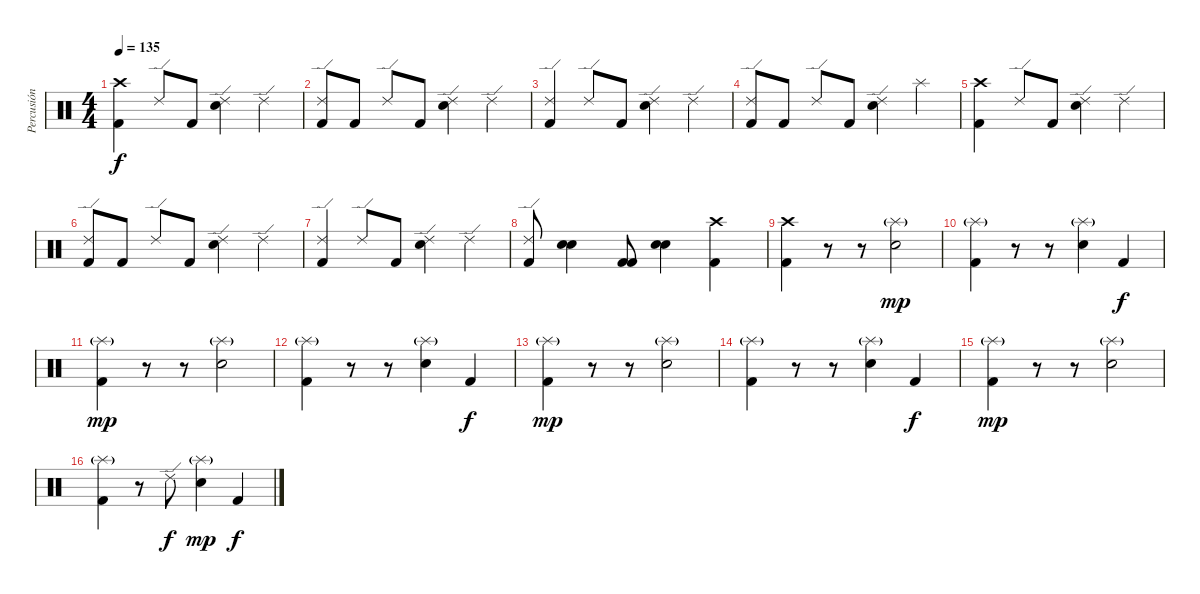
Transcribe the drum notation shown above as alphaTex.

\track ("Percusión" "Percusión") {instrument percussion}
\staff {score}
\articulation defaults
\ts (4 4)
\tempo 135
\clef neutral
\ks c
("Kick (hit) 2" "Crash high (hit)").4{dy f} "Ride (edge) 2".8 "Kick (hit) 2".8 ("Snare (hit) 2" "Ride (edge) 2").4 "Ride (edge) 2".4 |
("Kick (hit) 2" "Ride (edge) 2").8 "Kick (hit) 2".8 "Ride (edge) 2".8 "Kick (hit) 2".8 ("Snare (hit) 2" "Ride (edge) 2").4 "Ride (edge) 2".4 |
("Kick (hit) 2" "Ride (edge) 2").4 "Ride (edge) 2".8 "Kick (hit) 2".8 ("Snare (hit) 2" "Ride (edge) 2").4 "Ride (edge) 2".4 |
("Kick (hit) 2" "Ride (edge) 2").8 "Kick (hit) 2".8 "Ride (edge) 2".8 "Kick (hit) 2".8 ("Snare (hit) 2" "Ride (edge) 2").4 "Splash (hit)".4 |
("Kick (hit) 2" "Crash high (hit)").4 "Ride (edge) 2".8 "Kick (hit) 2".8 ("Snare (hit) 2" "Ride (edge) 2").4 "Ride (edge) 2".4 |
("Kick (hit) 2" "Ride (edge) 2").8 "Kick (hit) 2".8 "Ride (edge) 2".8 "Kick (hit) 2".8 ("Snare (hit) 2" "Ride (edge) 2").4 "Ride (edge) 2".4 |
("Kick (hit) 2" "Ride (edge) 2").4 "Ride (edge) 2".8 "Kick (hit) 2".8 ("Snare (hit) 2" "Ride (edge) 2").4 "Ride (edge) 2".4 |
("Kick (hit) 2" "Ride (edge) 2").8 ("Snare (hit) 2" "Snare (hit) 2").4 ("Kick (hit) 2" "Kick (hit) 2").8 ("Snare (hit) 2" "Snare (hit) 2").4 ("Kick (hit) 2" "Crash high (hit)").4 |
("Kick (hit) 2" "Crash high (hit)").4 r.8 r.8 ("Snare (hit) 2" "Splash (hit)"{g}).2{dy mp} |
("Kick (hit) 2" "Splash (hit)"{g}).4 r.8 r.8 ("Snare (hit) 2" "Splash (hit)"{g}).4 "Kick (hit) 2".4{dy f} |
("Kick (hit) 2" "Splash (hit)"{g}).4{dy mp} r.8 r.8 ("Snare (hit) 2" "Splash (hit)"{g}).2 |
("Kick (hit) 2" "Splash (hit)"{g}).4 r.8 r.8 ("Snare (hit) 2" "Splash (hit)"{g}).4 "Kick (hit) 2".4{dy f} |
("Kick (hit) 2" "Splash (hit)"{g}).4{dy mp} r.8 r.8 ("Snare (hit) 2" "Splash (hit)"{g}).2 |
("Kick (hit) 2" "Splash (hit)"{g}).4 r.8 r.8 ("Snare (hit) 2" "Splash (hit)"{g}).4 "Kick (hit) 2".4{dy f} |
("Kick (hit) 2" "Splash (hit)"{g}).4{dy mp} r.8 r.8 ("Snare (hit) 2" "Splash (hit)"{g}).2 |
("Kick (hit) 2" "Splash (hit)"{g}).4 r.8 "Ride (edge) 2".8{dy f} ("Snare (hit) 2" "Splash (hit)"{g}).4{dy mp} "Kick (hit) 2".4{dy f}
